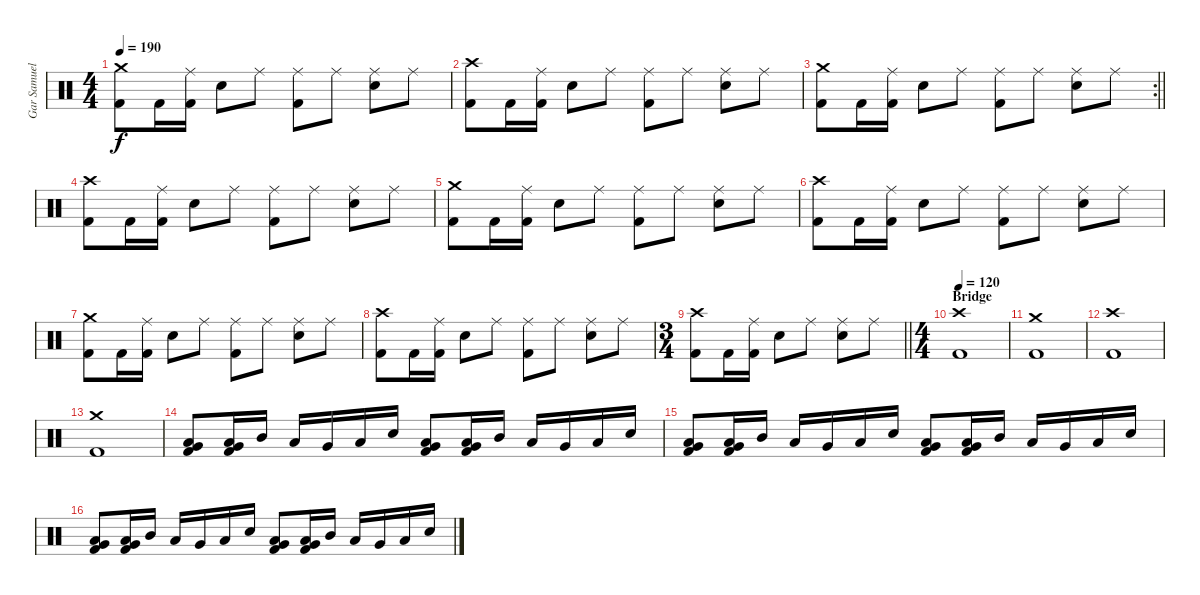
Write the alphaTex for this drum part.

\track ("Gar Samuelson" "Gar Samuel") {instrument percussion}
\staff
\articulation defaults
\ts (4 4)
\tempo 190
\clef neutral
\ks c
("Crash medium (hit)" "Kick (hit) 2").8{dy f} "Kick (hit) 2".16 ("Ride (middle)" "Kick (hit) 2").16 "Snare (hit) 2".8 "Ride (middle)".8 ("Ride (middle)" "Kick (hit) 2").8 "Ride (middle)".8 ("Ride (middle)" "Snare (hit) 2").8 "Ride (middle)".8 |
("Crash high (hit)" "Kick (hit) 2").8 "Kick (hit) 2".16 ("Ride (middle)" "Kick (hit) 2").16 "Snare (hit) 2".8 "Ride (middle)".8 ("Ride (middle)" "Kick (hit) 2").8 "Ride (middle)".8 ("Ride (middle)" "Snare (hit) 2").8 "Ride (middle)".8 |
\rc 2
\barLineRight lightlight
("Crash medium (hit)" "Kick (hit) 2").8 "Kick (hit) 2".16 ("Ride (middle)" "Kick (hit) 2").16 "Snare (hit) 2".8 "Ride (middle)".8 ("Ride (middle)" "Kick (hit) 2").8 "Ride (middle)".8 ("Ride (middle)" "Snare (hit) 2").8 "Ride (middle)".8 |
("Crash high (hit)" "Kick (hit) 2").8 "Kick (hit) 2".16 ("Ride (middle)" "Kick (hit) 2").16 "Snare (hit) 2".8 "Ride (middle)".8 ("Ride (middle)" "Kick (hit) 2").8 "Ride (middle)".8 ("Ride (middle)" "Snare (hit) 2").8 "Ride (middle)".8 |
("Crash medium (hit)" "Kick (hit) 2").8 "Kick (hit) 2".16 ("Ride (middle)" "Kick (hit) 2").16 "Snare (hit) 2".8 "Ride (middle)".8 ("Ride (middle)" "Kick (hit) 2").8 "Ride (middle)".8 ("Ride (middle)" "Snare (hit) 2").8 "Ride (middle)".8 |
("Crash high (hit)" "Kick (hit) 2").8 "Kick (hit) 2".16 ("Ride (middle)" "Kick (hit) 2").16 "Snare (hit) 2".8 "Ride (middle)".8 ("Ride (middle)" "Kick (hit) 2").8 "Ride (middle)".8 ("Ride (middle)" "Snare (hit) 2").8 "Ride (middle)".8 |
("Crash medium (hit)" "Kick (hit) 2").8 "Kick (hit) 2".16 ("Ride (middle)" "Kick (hit) 2").16 "Snare (hit) 2".8 "Ride (middle)".8 ("Ride (middle)" "Kick (hit) 2").8 "Ride (middle)".8 ("Ride (middle)" "Snare (hit) 2").8 "Ride (middle)".8 |
("Crash high (hit)" "Kick (hit) 2").8 "Kick (hit) 2".16 ("Ride (middle)" "Kick (hit) 2").16 "Snare (hit) 2".8 "Ride (middle)".8 ("Ride (middle)" "Kick (hit) 2").8 "Ride (middle)".8 ("Ride (middle)" "Snare (hit) 2").8 "Ride (middle)".8 |
\ts (3 4)
\barLineRight lightlight
("Crash high (hit)" "Kick (hit) 2").8 "Kick (hit) 2".16 ("Ride (middle)" "Kick (hit) 2").16 "Snare (hit) 2".8 "Ride (middle)".8 ("Ride (middle)" "Snare (hit) 2").8 "Ride (middle)".8 |
\ts (4 4)
\section ("" "Bridge")
\tempo 120
("Crash high (hit)" "Kick (hit) 2").1 |
("Crash medium (hit)" "Kick (hit) 2").1 |
("Crash high (hit)" "Kick (hit) 2").1 |
("Crash medium (hit)" "Kick (hit) 2").1 |
("Very Low Tom (hit)" "Low Floor Tom (hit)" "Kick (hit) 2").8 ("Very Low Tom (hit)" "Low Floor Tom (hit)" "Kick (hit) 2").16 "Mid Tom (hit)".16 "Low Tom (hit)".16 "Very Low Tom (hit)".16 "Low Floor Tom (hit)".16 "Snare (hit) 2".16 ("Very Low Tom (hit)" "Low Floor Tom (hit)" "Kick (hit) 2").8 ("Very Low Tom (hit)" "Low Floor Tom (hit)" "Kick (hit) 2").16 "Mid Tom (hit)".16 "Low Tom (hit)".16 "Very Low Tom (hit)".16 "Low Floor Tom (hit)".16 "Snare (hit) 2".16 |
("Very Low Tom (hit)" "Low Floor Tom (hit)" "Kick (hit) 2").8 ("Very Low Tom (hit)" "Low Floor Tom (hit)" "Kick (hit) 2").16 "Mid Tom (hit)".16 "Low Tom (hit)".16 "Very Low Tom (hit)".16 "Low Floor Tom (hit)".16 "Snare (hit) 2".16 ("Very Low Tom (hit)" "Low Floor Tom (hit)" "Kick (hit) 2").8 ("Very Low Tom (hit)" "Low Floor Tom (hit)" "Kick (hit) 2").16 "Mid Tom (hit)".16 "Low Tom (hit)".16 "Very Low Tom (hit)".16 "Low Floor Tom (hit)".16 "Snare (hit) 2".16 |
("Very Low Tom (hit)" "Low Floor Tom (hit)" "Kick (hit) 2").8 ("Very Low Tom (hit)" "Low Floor Tom (hit)" "Kick (hit) 2").16 "Mid Tom (hit)".16 "Low Tom (hit)".16 "Very Low Tom (hit)".16 "Low Floor Tom (hit)".16 "Snare (hit) 2".16 ("Very Low Tom (hit)" "Low Floor Tom (hit)" "Kick (hit) 2").8 ("Very Low Tom (hit)" "Low Floor Tom (hit)" "Kick (hit) 2").16 "Mid Tom (hit)".16 "Low Tom (hit)".16 "Very Low Tom (hit)".16 "Low Floor Tom (hit)".16 "Snare (hit) 2".16
